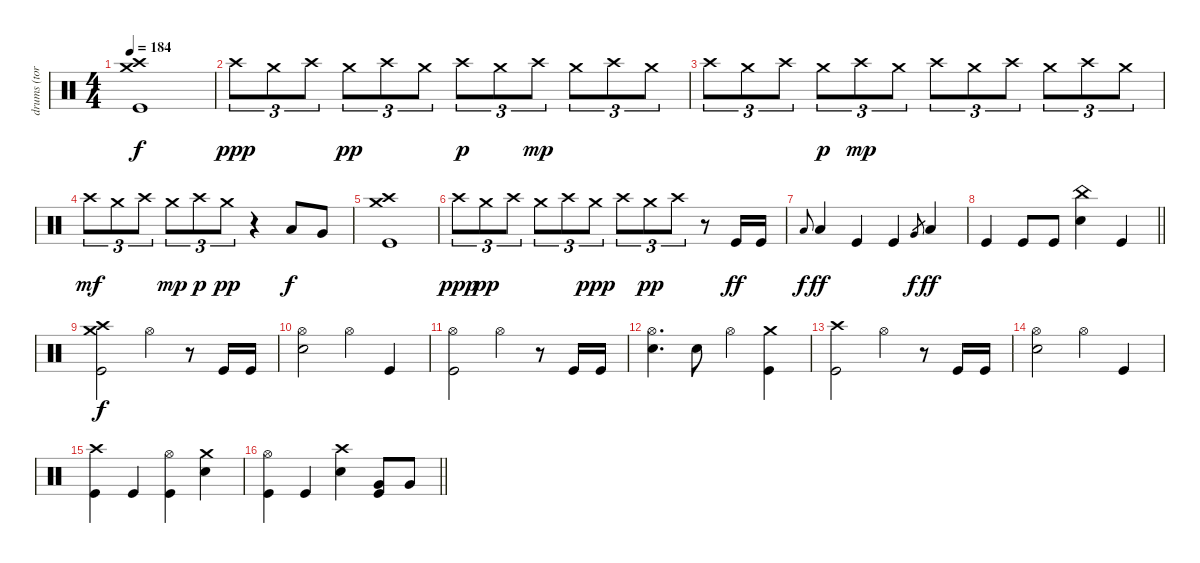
\track ("drums (tora)" "drums (tor") {instrument percussion}
\staff {score}
\articulation defaults
\ts (4 4)
\tempo 184
\clef neutral
\ks c
("Crash high (hit)" "Crash medium (hit)" "Kick (hit)").1{dy f} |
"Crash high (hit)".8{tu (3 2) dy ppp} "Crash medium (hit)".8{tu (3 2)} "Crash high (hit)".8{tu (3 2)} "Crash medium (hit)".8{tu (3 2) dy pp} "Crash high (hit)".8{tu (3 2)} "Crash medium (hit)".8{tu (3 2)} "Crash high (hit)".8{tu (3 2) dy p} "Crash medium (hit)".8{tu (3 2)} "Crash high (hit)".8{tu (3 2) dy mp} "Crash medium (hit)".8{tu (3 2)} "Crash high (hit)".8{tu (3 2)} "Crash medium (hit)".8{tu (3 2)} |
"Crash high (hit)".8{tu (3 2)} "Crash medium (hit)".8{tu (3 2)} "Crash high (hit)".8{tu (3 2)} "Crash medium (hit)".8{tu (3 2) dy p} "Crash high (hit)".8{tu (3 2) dy mp} "Crash medium (hit)".8{tu (3 2)} "Crash high (hit)".8{tu (3 2)} "Crash medium (hit)".8{tu (3 2)} "Crash high (hit)".8{tu (3 2)} "Crash medium (hit)".8{tu (3 2)} "Crash high (hit)".8{tu (3 2)} "Crash medium (hit)".8{tu (3 2)} |
"Crash high (hit)".8{tu (3 2) dy mf} "Crash medium (hit)".8{tu (3 2)} "Crash high (hit)".8{tu (3 2)} "Crash medium (hit)".8{tu (3 2) dy mp} "Crash high (hit)".8{tu (3 2) dy p} "Crash medium (hit)".8{tu (3 2) dy pp} r.4 "Low Tom (hit)".8{dy f} "Very Low Tom (hit)".8 |
("Crash high (hit)" "Crash medium (hit)" "Kick (hit)").1 |
"Crash high (hit)".8{tu (3 2) dy ppp} "Crash medium (hit)".8{tu (3 2) dy pp} "Crash high (hit)".8{tu (3 2)} "Crash medium (hit)".8{tu (3 2)} "Crash high (hit)".8{tu (3 2)} "Crash medium (hit)".8{tu (3 2) dy ppp} "Crash high (hit)".8{tu (3 2)} "Crash medium (hit)".8{tu (3 2) dy pp} "Crash high (hit)".8{tu (3 2)} r.8 "Kick (hit)".16{dy ff} "Kick (hit)".16 |
"Low Tom (hit)".8{gr onbeat dy f} "Low Floor Tom (hit)".4{dy ff} "Kick (hit)".4 "Kick (hit)".4 "Very Low Tom (hit)".8{gr dy f} "Low Floor Tom (hit)".4{dy ff} |
\barLineRight lightlight "Kick (hit)".4 "Kick (hit)".8 "Kick (hit)".8
("China (hit)" "Snare (hit) 2").4 "Kick (hit)".4 |
\section ("" "")
("Crash high (hit)" "Crash medium (hit)" "Kick (hit)").2{dy f} "Hi-Hat (open)".4 r.8 "Kick (hit)".16 "Kick (hit)".16 |
("Hi-Hat (open)" "Snare (hit) 2").2 "Hi-Hat (open)".4 "Kick (hit)".4 |
("Hi-Hat (open)" "Kick (hit)").2 "Hi-Hat (open)".4 r.8 "Kick (hit)".16 "Kick (hit)".16 |
("Hi-Hat (open)" "Snare (hit) 2").4{d} "Snare (hit) 2".8 "Hi-Hat (open)".4 ("Crash medium (hit)" "Kick (hit)").4 |
("Crash high (hit)" "Kick (hit)").2 "Hi-Hat (open)".4 r.8 "Kick (hit)".16 "Kick (hit)".16 |
("Hi-Hat (open)" "Snare (hit) 2").2 "Hi-Hat (open)".4 "Kick (hit)".4 |
("Crash high (hit)" "Kick (hit)").4 "Kick (hit)".4 ("Hi-Hat (open)" "Kick (hit)").4 ("Crash medium (hit)" "Snare (hit) 2").4 |
\barLineRight lightlight
("Hi-Hat (open)" "Kick (hit)").4 "Kick (hit)".4 ("Crash high (hit)" "Snare (hit) 2").4 ("Very Low Tom (hit)" "Kick (hit)").8 "Very Low Tom (hit)".8
